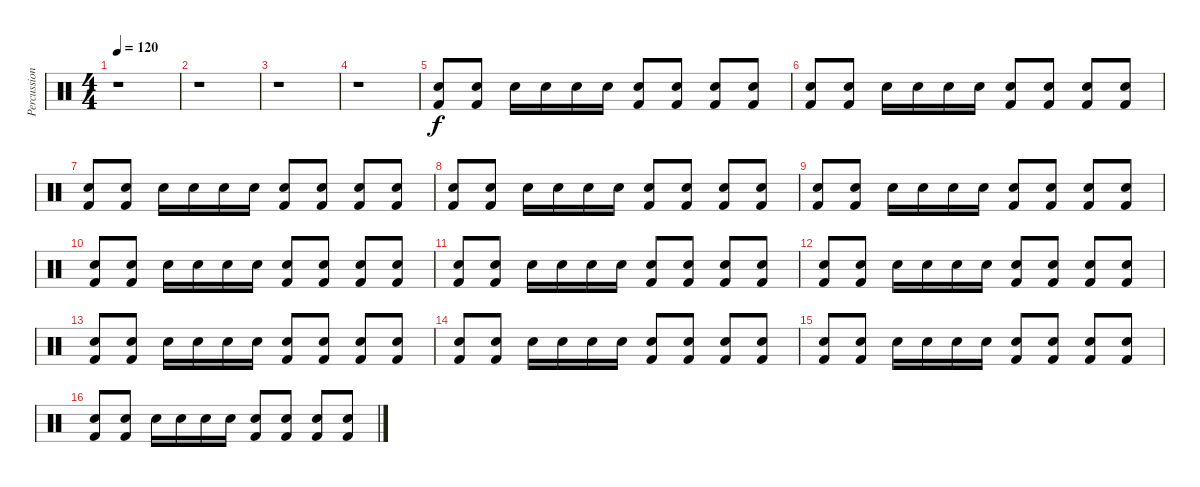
\track ("Percussion" "Percussion") {instrument percussion}
\staff {score}
\articulation defaults
\ts (4 4)
\tempo 120
\tempo 75
\tempo 120
\clef neutral
\ks c
r.1{dy f} |
r.1 |
r.1 |
r.1 |
("Electric Snare (hit)" "Kick (hit) 2").8 ("Electric Snare (hit)" "Kick (hit) 2").8 "Electric Snare (hit)".16 "Electric Snare (hit)".16 "Electric Snare (hit)".16 "Electric Snare (hit)".16 ("Electric Snare (hit)" "Kick (hit) 2").8 ("Electric Snare (hit)" "Kick (hit) 2").8 ("Electric Snare (hit)" "Kick (hit) 2").8 ("Electric Snare (hit)" "Kick (hit) 2").8 |
("Electric Snare (hit)" "Kick (hit) 2").8 ("Electric Snare (hit)" "Kick (hit) 2").8 "Electric Snare (hit)".16 "Electric Snare (hit)".16 "Electric Snare (hit)".16 "Electric Snare (hit)".16 ("Electric Snare (hit)" "Kick (hit) 2").8 ("Electric Snare (hit)" "Kick (hit) 2").8 ("Electric Snare (hit)" "Kick (hit) 2").8 ("Electric Snare (hit)" "Kick (hit) 2").8 |
("Electric Snare (hit)" "Kick (hit) 2").8 ("Electric Snare (hit)" "Kick (hit) 2").8 "Electric Snare (hit)".16 "Electric Snare (hit)".16 "Electric Snare (hit)".16 "Electric Snare (hit)".16 ("Electric Snare (hit)" "Kick (hit) 2").8 ("Electric Snare (hit)" "Kick (hit) 2").8 ("Electric Snare (hit)" "Kick (hit) 2").8 ("Electric Snare (hit)" "Kick (hit) 2").8 |
("Electric Snare (hit)" "Kick (hit) 2").8 ("Electric Snare (hit)" "Kick (hit) 2").8 "Electric Snare (hit)".16 "Electric Snare (hit)".16 "Electric Snare (hit)".16 "Electric Snare (hit)".16 ("Electric Snare (hit)" "Kick (hit) 2").8 ("Electric Snare (hit)" "Kick (hit) 2").8 ("Electric Snare (hit)" "Kick (hit) 2").8 ("Electric Snare (hit)" "Kick (hit) 2").8 |
("Electric Snare (hit)" "Kick (hit) 2").8 ("Electric Snare (hit)" "Kick (hit) 2").8 "Electric Snare (hit)".16 "Electric Snare (hit)".16 "Electric Snare (hit)".16 "Electric Snare (hit)".16 ("Electric Snare (hit)" "Kick (hit) 2").8 ("Electric Snare (hit)" "Kick (hit) 2").8 ("Electric Snare (hit)" "Kick (hit) 2").8 ("Electric Snare (hit)" "Kick (hit) 2").8 |
("Electric Snare (hit)" "Kick (hit) 2").8 ("Electric Snare (hit)" "Kick (hit) 2").8 "Electric Snare (hit)".16 "Electric Snare (hit)".16 "Electric Snare (hit)".16 "Electric Snare (hit)".16 ("Electric Snare (hit)" "Kick (hit) 2").8 ("Electric Snare (hit)" "Kick (hit) 2").8 ("Electric Snare (hit)" "Kick (hit) 2").8 ("Electric Snare (hit)" "Kick (hit) 2").8 |
("Electric Snare (hit)" "Kick (hit) 2").8 ("Electric Snare (hit)" "Kick (hit) 2").8 "Electric Snare (hit)".16 "Electric Snare (hit)".16 "Electric Snare (hit)".16 "Electric Snare (hit)".16 ("Electric Snare (hit)" "Kick (hit) 2").8 ("Electric Snare (hit)" "Kick (hit) 2").8 ("Electric Snare (hit)" "Kick (hit) 2").8 ("Electric Snare (hit)" "Kick (hit) 2").8 |
("Electric Snare (hit)" "Kick (hit) 2").8 ("Electric Snare (hit)" "Kick (hit) 2").8 "Electric Snare (hit)".16 "Electric Snare (hit)".16 "Electric Snare (hit)".16 "Electric Snare (hit)".16 ("Electric Snare (hit)" "Kick (hit) 2").8 ("Electric Snare (hit)" "Kick (hit) 2").8 ("Electric Snare (hit)" "Kick (hit) 2").8 ("Electric Snare (hit)" "Kick (hit) 2").8 |
("Electric Snare (hit)" "Kick (hit) 2").8 ("Electric Snare (hit)" "Kick (hit) 2").8 "Electric Snare (hit)".16 "Electric Snare (hit)".16 "Electric Snare (hit)".16 "Electric Snare (hit)".16 ("Electric Snare (hit)" "Kick (hit) 2").8 ("Electric Snare (hit)" "Kick (hit) 2").8 ("Electric Snare (hit)" "Kick (hit) 2").8 ("Electric Snare (hit)" "Kick (hit) 2").8 |
("Electric Snare (hit)" "Kick (hit) 2").8 ("Electric Snare (hit)" "Kick (hit) 2").8 "Electric Snare (hit)".16 "Electric Snare (hit)".16 "Electric Snare (hit)".16 "Electric Snare (hit)".16 ("Electric Snare (hit)" "Kick (hit) 2").8 ("Electric Snare (hit)" "Kick (hit) 2").8 ("Electric Snare (hit)" "Kick (hit) 2").8 ("Electric Snare (hit)" "Kick (hit) 2").8 |
("Electric Snare (hit)" "Kick (hit) 2").8 ("Electric Snare (hit)" "Kick (hit) 2").8 "Electric Snare (hit)".16 "Electric Snare (hit)".16 "Electric Snare (hit)".16 "Electric Snare (hit)".16 ("Electric Snare (hit)" "Kick (hit) 2").8 ("Electric Snare (hit)" "Kick (hit) 2").8 ("Electric Snare (hit)" "Kick (hit) 2").8 ("Electric Snare (hit)" "Kick (hit) 2").8 |
("Electric Snare (hit)" "Kick (hit) 2").8 ("Electric Snare (hit)" "Kick (hit) 2").8 "Electric Snare (hit)".16 "Electric Snare (hit)".16 "Electric Snare (hit)".16 "Electric Snare (hit)".16 ("Electric Snare (hit)" "Kick (hit) 2").8 ("Electric Snare (hit)" "Kick (hit) 2").8 ("Electric Snare (hit)" "Kick (hit) 2").8 ("Electric Snare (hit)" "Kick (hit) 2").8
